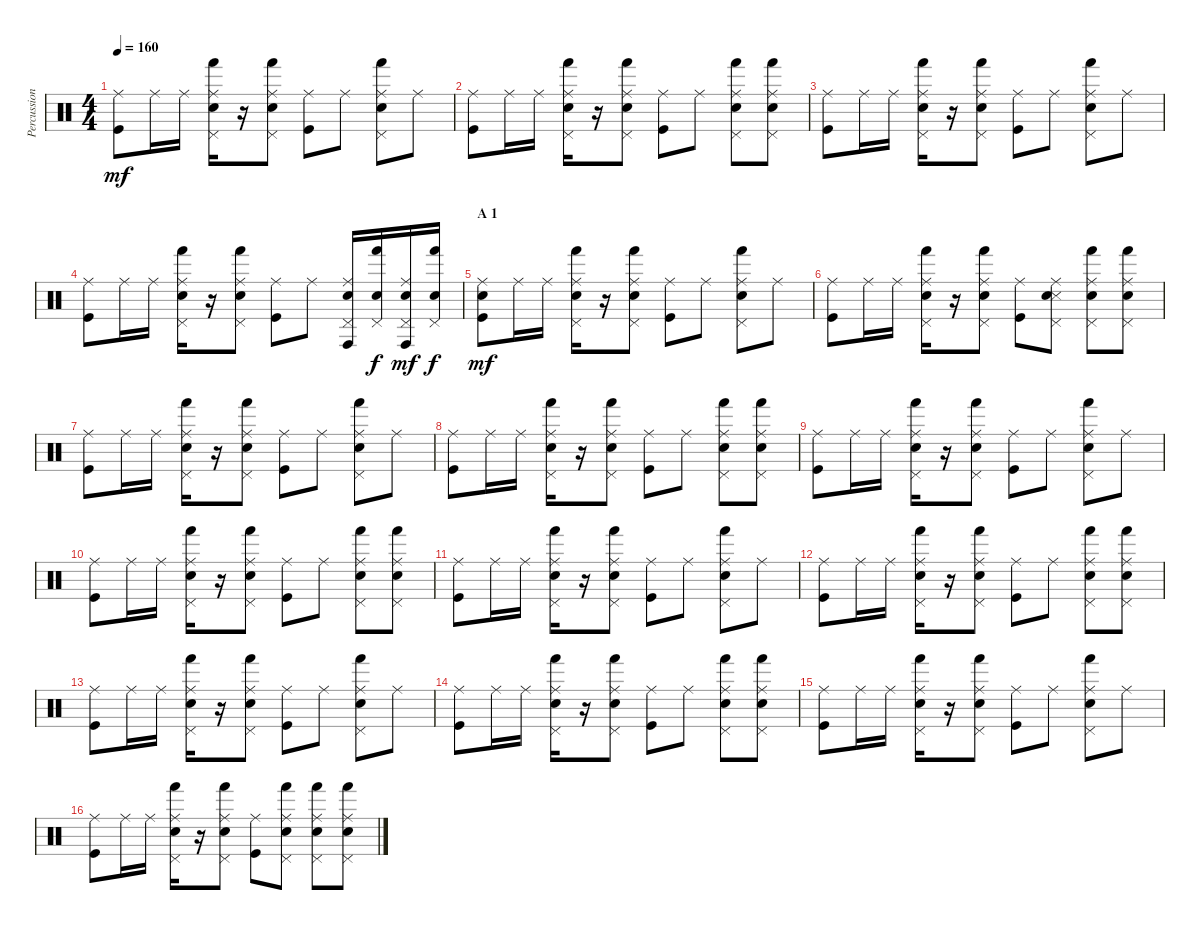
\track ("Percussion" "Percussion") {instrument percussion}
\staff {score}
\articulation defaults
\ts (4 4)
\tempo 160
\clef neutral
\ks c
("Ride (middle)" "Kick (hit)").8{dy mf} "Ride (middle)".16 "Ride (middle)".16 ("Ride (middle)" "Pedal Hi-Hat (hit)" "Hand (hit)" "Electric Snare (hit)").16 r.16 ("Ride (middle)" "Pedal Hi-Hat (hit)" "Hand (hit)" "Electric Snare (hit)").8 ("Ride (middle)" "Kick (hit)").8 "Ride (middle)".8 ("Ride (middle)" "Pedal Hi-Hat (hit)" "Hand (hit)" "Electric Snare (hit)").8 "Ride (middle)".8 |
("Ride (middle)" "Kick (hit)").8 "Ride (middle)".16 "Ride (middle)".16 ("Ride (middle)" "Pedal Hi-Hat (hit)" "Hand (hit)" "Electric Snare (hit)").16 r.16 ("Ride (middle)" "Pedal Hi-Hat (hit)" "Hand (hit)" "Electric Snare (hit)").8 ("Ride (middle)" "Kick (hit)").8 "Ride (middle)".8 ("Ride (middle)" "Pedal Hi-Hat (hit)" "Hand (hit)" "Electric Snare (hit)").8 ("Ride (middle)" "Pedal Hi-Hat (hit)" "Hand (hit)" "Electric Snare (hit)").8 |
("Ride (middle)" "Kick (hit)").8 "Ride (middle)".16 "Ride (middle)".16 ("Ride (middle)" "Pedal Hi-Hat (hit)" "Hand (hit)" "Electric Snare (hit)").16 r.16 ("Ride (middle)" "Pedal Hi-Hat (hit)" "Hand (hit)" "Electric Snare (hit)").8 ("Ride (middle)" "Kick (hit)").8 "Ride (middle)".8 ("Ride (middle)" "Pedal Hi-Hat (hit)" "Hand (hit)" "Electric Snare (hit)").8 "Ride (middle)".8 |
("Ride (middle)" "Kick (hit)").8 "Ride (middle)".16 "Ride (middle)".16 ("Ride (middle)" "Pedal Hi-Hat (hit)" "Hand (hit)" "Electric Snare (hit)").16 r.16 ("Ride (middle)" "Pedal Hi-Hat (hit)" "Hand (hit)" "Electric Snare (hit)").8 ("Ride (middle)" "Kick (hit)").8 "Ride (middle)".8 ("Ride (middle)" "Pedal Hi-Hat (hit)" "Conga high (hit)" "Electric Snare (hit)").16 ("Pedal Hi-Hat (hit)" "Hand (hit)" "Electric Snare (hit)").16{dy f} ("Ride (middle)" "Pedal Hi-Hat (hit)" "Conga high (hit)" "Electric Snare (hit)").16{dy mf} ("Pedal Hi-Hat (hit)" "Hand (hit)" "Electric Snare (hit)").16{dy f} |
\section ("" "A 1")
("Ride (middle)" "Electric Snare (hit)" "Kick (hit)").8{dy mf} "Ride (middle)".16 "Ride (middle)".16 ("Ride (middle)" "Pedal Hi-Hat (hit)" "Hand (hit)" "Electric Snare (hit)").16 r.16 ("Ride (middle)" "Pedal Hi-Hat (hit)" "Hand (hit)" "Electric Snare (hit)").8 ("Ride (middle)" "Kick (hit)").8 "Ride (middle)".8 ("Ride (middle)" "Pedal Hi-Hat (hit)" "Hand (hit)" "Electric Snare (hit)").8 "Ride (middle)".8 |
("Ride (middle)" "Kick (hit)").8 "Ride (middle)".16 "Ride (middle)".16 ("Ride (middle)" "Pedal Hi-Hat (hit)" "Hand (hit)" "Electric Snare (hit)").16 r.16 ("Ride (middle)" "Pedal Hi-Hat (hit)" "Hand (hit)" "Electric Snare (hit)").8 ("Ride (middle)" "Kick (hit)").8 ("Ride (middle)" "Pedal Hi-Hat (hit)" "Snare (side stick) 3" "Electric Snare (hit)").8 ("Ride (middle)" "Pedal Hi-Hat (hit)" "Hand (hit)" "Electric Snare (hit)").8 ("Ride (middle)" "Pedal Hi-Hat (hit)" "Hand (hit)" "Electric Snare (hit)").8 |
("Ride (middle)" "Kick (hit)").8 "Ride (middle)".16 "Ride (middle)".16 ("Ride (middle)" "Pedal Hi-Hat (hit)" "Hand (hit)" "Electric Snare (hit)").16 r.16 ("Ride (middle)" "Pedal Hi-Hat (hit)" "Hand (hit)" "Electric Snare (hit)").8 ("Ride (middle)" "Kick (hit)").8 "Ride (middle)".8 ("Ride (middle)" "Pedal Hi-Hat (hit)" "Hand (hit)" "Electric Snare (hit)").8 "Ride (middle)".8 |
("Ride (middle)" "Kick (hit)").8 "Ride (middle)".16 "Ride (middle)".16 ("Ride (middle)" "Pedal Hi-Hat (hit)" "Hand (hit)" "Electric Snare (hit)").16 r.16 ("Ride (middle)" "Pedal Hi-Hat (hit)" "Hand (hit)" "Electric Snare (hit)").8 ("Ride (middle)" "Kick (hit)").8 "Ride (middle)".8 ("Ride (middle)" "Pedal Hi-Hat (hit)" "Hand (hit)" "Electric Snare (hit)").8 ("Ride (middle)" "Pedal Hi-Hat (hit)" "Hand (hit)" "Electric Snare (hit)").8 |
("Ride (middle)" "Kick (hit)").8 "Ride (middle)".16 "Ride (middle)".16 ("Ride (middle)" "Pedal Hi-Hat (hit)" "Hand (hit)" "Electric Snare (hit)").16 r.16 ("Ride (middle)" "Pedal Hi-Hat (hit)" "Hand (hit)" "Electric Snare (hit)").8 ("Ride (middle)" "Kick (hit)").8 "Ride (middle)".8 ("Ride (middle)" "Pedal Hi-Hat (hit)" "Hand (hit)" "Electric Snare (hit)").8 "Ride (middle)".8 |
("Ride (middle)" "Kick (hit)").8 "Ride (middle)".16 "Ride (middle)".16 ("Ride (middle)" "Pedal Hi-Hat (hit)" "Hand (hit)" "Electric Snare (hit)").16 r.16 ("Ride (middle)" "Pedal Hi-Hat (hit)" "Hand (hit)" "Electric Snare (hit)").8 ("Ride (middle)" "Kick (hit)").8 "Ride (middle)".8 ("Ride (middle)" "Pedal Hi-Hat (hit)" "Hand (hit)" "Electric Snare (hit)").8 ("Ride (middle)" "Pedal Hi-Hat (hit)" "Hand (hit)" "Electric Snare (hit)").8 |
("Ride (middle)" "Kick (hit)").8 "Ride (middle)".16 "Ride (middle)".16 ("Ride (middle)" "Pedal Hi-Hat (hit)" "Hand (hit)" "Electric Snare (hit)").16 r.16 ("Ride (middle)" "Pedal Hi-Hat (hit)" "Hand (hit)" "Electric Snare (hit)").8 ("Ride (middle)" "Kick (hit)").8 "Ride (middle)".8 ("Ride (middle)" "Pedal Hi-Hat (hit)" "Hand (hit)" "Electric Snare (hit)").8 "Ride (middle)".8 |
("Ride (middle)" "Kick (hit)").8 "Ride (middle)".16 "Ride (middle)".16 ("Ride (middle)" "Pedal Hi-Hat (hit)" "Hand (hit)" "Electric Snare (hit)").16 r.16 ("Ride (middle)" "Pedal Hi-Hat (hit)" "Hand (hit)" "Electric Snare (hit)").8 ("Ride (middle)" "Kick (hit)").8 "Ride (middle)".8 ("Ride (middle)" "Pedal Hi-Hat (hit)" "Hand (hit)" "Electric Snare (hit)").8 ("Ride (middle)" "Pedal Hi-Hat (hit)" "Hand (hit)" "Electric Snare (hit)").8 |
("Ride (middle)" "Kick (hit)").8 "Ride (middle)".16 "Ride (middle)".16 ("Ride (middle)" "Pedal Hi-Hat (hit)" "Hand (hit)" "Electric Snare (hit)").16 r.16 ("Ride (middle)" "Pedal Hi-Hat (hit)" "Hand (hit)" "Electric Snare (hit)").8 ("Ride (middle)" "Kick (hit)").8 "Ride (middle)".8 ("Ride (middle)" "Pedal Hi-Hat (hit)" "Hand (hit)" "Electric Snare (hit)").8 "Ride (middle)".8 |
("Ride (middle)" "Kick (hit)").8 "Ride (middle)".16 "Ride (middle)".16 ("Ride (middle)" "Pedal Hi-Hat (hit)" "Hand (hit)" "Electric Snare (hit)").16 r.16 ("Ride (middle)" "Pedal Hi-Hat (hit)" "Hand (hit)" "Electric Snare (hit)").8 ("Ride (middle)" "Kick (hit)").8 "Ride (middle)".8 ("Ride (middle)" "Pedal Hi-Hat (hit)" "Hand (hit)" "Electric Snare (hit)").8 ("Ride (middle)" "Pedal Hi-Hat (hit)" "Hand (hit)" "Electric Snare (hit)").8 |
("Ride (middle)" "Kick (hit)").8 "Ride (middle)".16 "Ride (middle)".16 ("Ride (middle)" "Pedal Hi-Hat (hit)" "Hand (hit)" "Electric Snare (hit)").16 r.16 ("Ride (middle)" "Pedal Hi-Hat (hit)" "Hand (hit)" "Electric Snare (hit)").8 ("Ride (middle)" "Kick (hit)").8 "Ride (middle)".8 ("Ride (middle)" "Pedal Hi-Hat (hit)" "Hand (hit)" "Electric Snare (hit)").8 "Ride (middle)".8 |
("Ride (middle)" "Kick (hit)").8 "Ride (middle)".16 "Ride (middle)".16 ("Ride (middle)" "Pedal Hi-Hat (hit)" "Hand (hit)" "Electric Snare (hit)").16 r.16 ("Ride (middle)" "Pedal Hi-Hat (hit)" "Hand (hit)" "Electric Snare (hit)").8 ("Ride (middle)" "Kick (hit)").8 ("Ride (middle)" "Pedal Hi-Hat (hit)" "Hand (hit)" "Electric Snare (hit)").8 ("Ride (middle)" "Pedal Hi-Hat (hit)" "Hand (hit)" "Electric Snare (hit)").8 ("Ride (middle)" "Pedal Hi-Hat (hit)" "Hand (hit)" "Electric Snare (hit)").8
